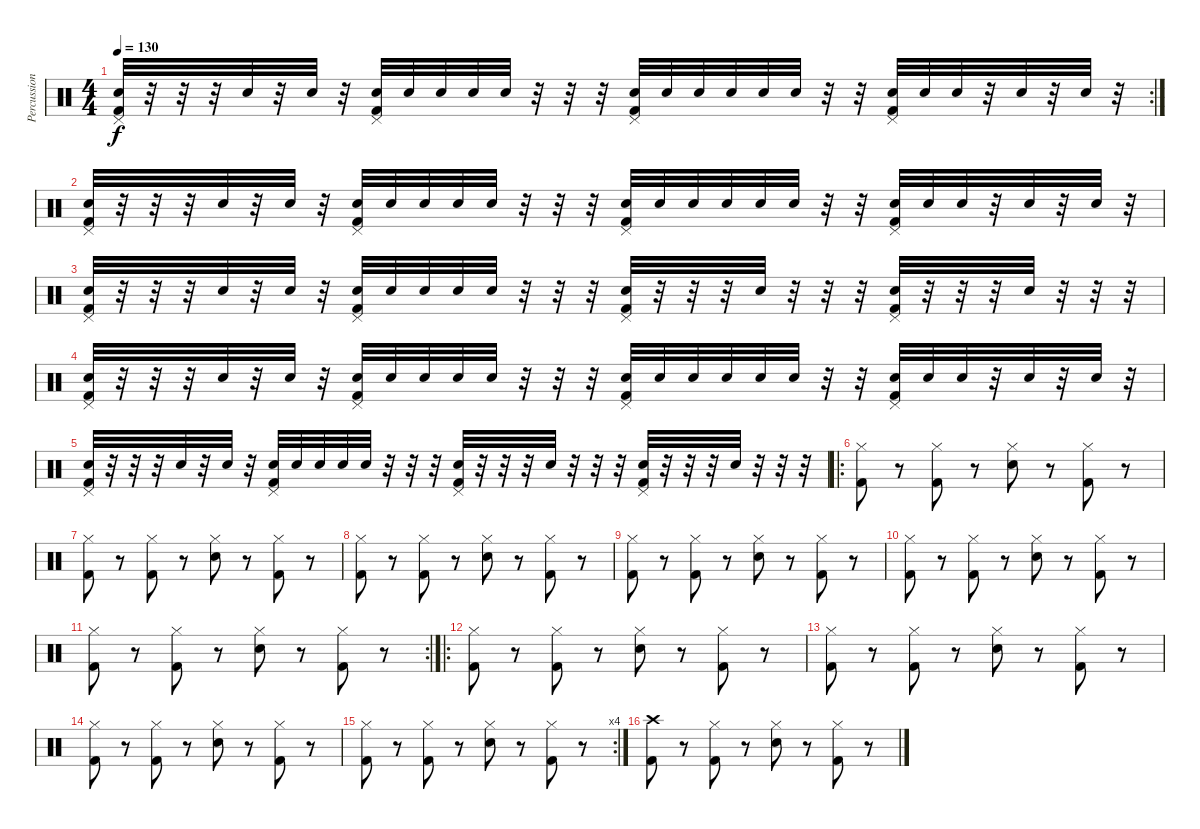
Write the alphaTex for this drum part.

\track ("Percussion" "Percussion") {instrument percussion}
\staff {score}
\articulation defaults
\rc 2
\ts (4 4)
\tempo 130
\clef neutral
\ks c
("Snare (hit) 2" "Pedal Hi-Hat (hit)" "Kick (hit) 2").32{dy f} r.32 r.32 r.32 "Snare (hit) 2".32 r.32 "Snare (hit) 2".32 r.32 ("Snare (hit) 2" "Pedal Hi-Hat (hit)" "Kick (hit) 2").32 "Snare (hit) 2".32 "Snare (hit) 2".32 "Snare (hit) 2".32 "Snare (hit) 2".32 r.32 r.32 r.32 ("Snare (hit) 2" "Pedal Hi-Hat (hit)" "Kick (hit) 2").32 "Snare (hit) 2".32 "Snare (hit) 2".32 "Snare (hit) 2".32 "Snare (hit) 2".32 "Snare (hit) 2".32 r.32 r.32 ("Snare (hit) 2" "Pedal Hi-Hat (hit)" "Kick (hit) 2").32 "Snare (hit) 2".32 "Snare (hit) 2".32 r.32 "Snare (hit) 2".32 r.32 "Snare (hit) 2".32 r.32 |
("Snare (hit) 2" "Pedal Hi-Hat (hit)" "Kick (hit) 2").32 r.32 r.32 r.32 "Snare (hit) 2".32 r.32 "Snare (hit) 2".32 r.32 ("Snare (hit) 2" "Pedal Hi-Hat (hit)" "Kick (hit) 2").32 "Snare (hit) 2".32 "Snare (hit) 2".32 "Snare (hit) 2".32 "Snare (hit) 2".32 r.32 r.32 r.32 ("Snare (hit) 2" "Pedal Hi-Hat (hit)" "Kick (hit) 2").32 "Snare (hit) 2".32 "Snare (hit) 2".32 "Snare (hit) 2".32 "Snare (hit) 2".32 "Snare (hit) 2".32 r.32 r.32 ("Snare (hit) 2" "Pedal Hi-Hat (hit)" "Kick (hit) 2").32 "Snare (hit) 2".32 "Snare (hit) 2".32 r.32 "Snare (hit) 2".32 r.32 "Snare (hit) 2".32 r.32 |
("Snare (hit) 2" "Pedal Hi-Hat (hit)" "Kick (hit) 2").32 r.32 r.32 r.32 "Snare (hit) 2".32 r.32 "Snare (hit) 2".32 r.32 ("Snare (hit) 2" "Pedal Hi-Hat (hit)" "Kick (hit) 2").32 "Snare (hit) 2".32 "Snare (hit) 2".32 "Snare (hit) 2".32 "Snare (hit) 2".32 r.32 r.32 r.32 ("Snare (hit) 2" "Pedal Hi-Hat (hit)" "Kick (hit) 2").32 r.32 r.32 r.32 "Snare (hit) 2".32 r.32 r.32 r.32 ("Snare (hit) 2" "Pedal Hi-Hat (hit)" "Kick (hit) 2").32 r.32 r.32 r.32 "Snare (hit) 2".32 r.32 r.32 r.32 |
("Snare (hit) 2" "Pedal Hi-Hat (hit)" "Kick (hit) 2").32 r.32 r.32 r.32 "Snare (hit) 2".32 r.32 "Snare (hit) 2".32 r.32 ("Snare (hit) 2" "Pedal Hi-Hat (hit)" "Kick (hit) 2").32 "Snare (hit) 2".32 "Snare (hit) 2".32 "Snare (hit) 2".32 "Snare (hit) 2".32 r.32 r.32 r.32 ("Snare (hit) 2" "Pedal Hi-Hat (hit)" "Kick (hit) 2").32 "Snare (hit) 2".32 "Snare (hit) 2".32 "Snare (hit) 2".32 "Snare (hit) 2".32 "Snare (hit) 2".32 r.32 r.32 ("Snare (hit) 2" "Pedal Hi-Hat (hit)" "Kick (hit) 2").32 "Snare (hit) 2".32 "Snare (hit) 2".32 r.32 "Snare (hit) 2".32 r.32 "Snare (hit) 2".32 r.32 |
("Snare (hit) 2" "Pedal Hi-Hat (hit)" "Kick (hit) 2").32 r.32 r.32 r.32 "Snare (hit) 2".32 r.32 "Snare (hit) 2".32 r.32 ("Snare (hit) 2" "Pedal Hi-Hat (hit)" "Kick (hit) 2").32 "Snare (hit) 2".32 "Snare (hit) 2".32 "Snare (hit) 2".32 "Snare (hit) 2".32 r.32 r.32 r.32 ("Snare (hit) 2" "Pedal Hi-Hat (hit)" "Kick (hit) 2").32 r.32 r.32 r.32 "Snare (hit) 2".32 r.32 r.32 r.32 ("Snare (hit) 2" "Pedal Hi-Hat (hit)" "Kick (hit) 2").32 r.32 r.32 r.32 "Snare (hit) 2".32 r.32 r.32 r.32 |
\ro
("Hi-Hat (closed)" "Kick (hit) 2").8 r.8 ("Hi-Hat (closed)" "Kick (hit) 2").8 r.8 ("Hi-Hat (closed)" "Snare (hit) 2").8 r.8 ("Hi-Hat (closed)" "Kick (hit) 2").8 r.8 |
("Hi-Hat (closed)" "Kick (hit) 2").8 r.8 ("Hi-Hat (closed)" "Kick (hit) 2").8 r.8 ("Hi-Hat (closed)" "Snare (hit) 2").8 r.8 ("Hi-Hat (closed)" "Kick (hit) 2").8 r.8 |
("Hi-Hat (closed)" "Kick (hit) 2").8 r.8 ("Hi-Hat (closed)" "Kick (hit) 2").8 r.8 ("Hi-Hat (closed)" "Snare (hit) 2").8 r.8 ("Hi-Hat (closed)" "Kick (hit) 2").8 r.8 |
("Hi-Hat (closed)" "Kick (hit) 2").8 r.8 ("Hi-Hat (closed)" "Kick (hit) 2").8 r.8 ("Hi-Hat (closed)" "Snare (hit) 2").8 r.8 ("Hi-Hat (closed)" "Kick (hit) 2").8 r.8 |
("Hi-Hat (closed)" "Kick (hit) 2").8 r.8 ("Hi-Hat (closed)" "Kick (hit) 2").8 r.8 ("Hi-Hat (closed)" "Snare (hit) 2").8 r.8 ("Hi-Hat (closed)" "Kick (hit) 2").8 r.8 |
\rc 2
("Hi-Hat (closed)" "Kick (hit) 2").8 r.8 ("Hi-Hat (closed)" "Kick (hit) 2").8 r.8 ("Hi-Hat (closed)" "Snare (hit) 2").8 r.8 ("Hi-Hat (closed)" "Kick (hit) 2").8 r.8 |
\ro
("Hi-Hat (closed)" "Kick (hit) 2").8 r.8 ("Hi-Hat (closed)" "Kick (hit) 2").8 r.8 ("Hi-Hat (closed)" "Snare (hit) 2").8 r.8 ("Hi-Hat (closed)" "Kick (hit) 2").8 r.8 |
("Hi-Hat (closed)" "Kick (hit) 2").8 r.8 ("Hi-Hat (closed)" "Kick (hit) 2").8 r.8 ("Hi-Hat (closed)" "Snare (hit) 2").8 r.8 ("Hi-Hat (closed)" "Kick (hit) 2").8 r.8 |
("Hi-Hat (closed)" "Kick (hit) 2").8 r.8 ("Hi-Hat (closed)" "Kick (hit) 2").8 r.8 ("Hi-Hat (closed)" "Snare (hit) 2").8 r.8 ("Hi-Hat (closed)" "Kick (hit) 2").8 r.8 |
\rc 4
("Hi-Hat (closed)" "Kick (hit) 2").8 r.8 ("Hi-Hat (closed)" "Kick (hit) 2").8 r.8 ("Hi-Hat (closed)" "Snare (hit) 2").8 r.8 ("Hi-Hat (closed)" "Kick (hit) 2").8 r.8 |
("Crash high (hit)" "Kick (hit) 2").8 r.8 ("Hi-Hat (closed)" "Kick (hit) 2").8 r.8 ("Hi-Hat (closed)" "Snare (hit) 2").8 r.8 ("Hi-Hat (closed)" "Kick (hit) 2").8 r.8
